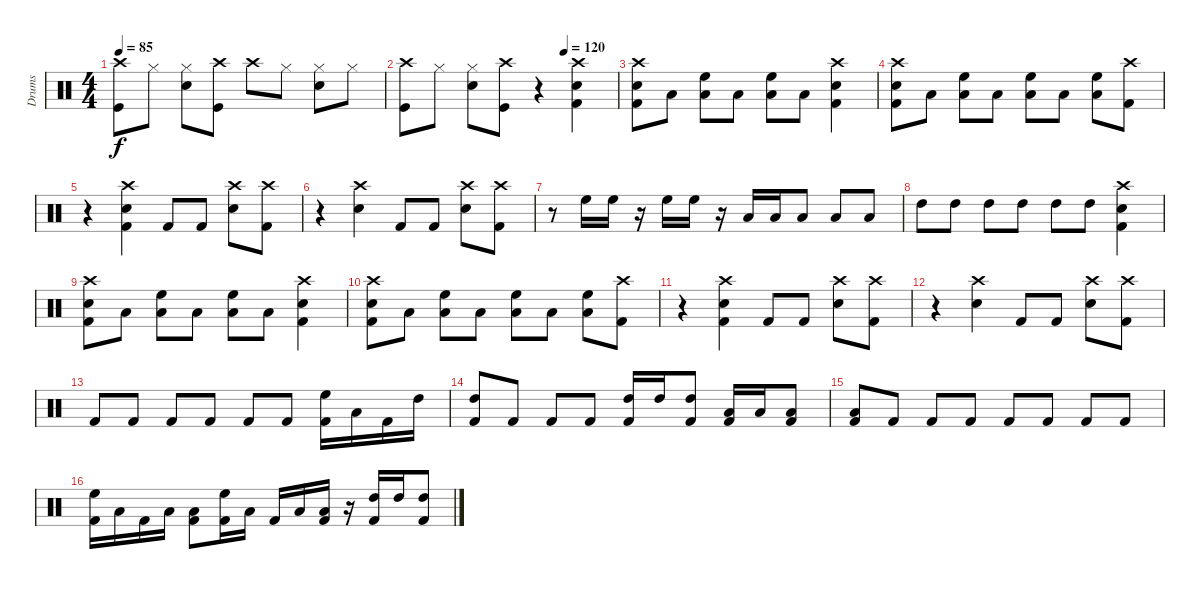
\track ("Drums" "Drums") {instrument percussion}
\staff {score}
\articulation defaults
\ts (4 4)
\tempo 85
\clef neutral
\ks c
("Crash high (hit)" "Kick (hit)").8{dy f} "Hi-Hat (closed)".8 ("Hi-Hat (closed)" "Snare (hit) 2").8 ("Crash high (hit)" "Kick (hit)").8 "Crash high (hit)".8 "Hi-Hat (closed)".8 ("Hi-Hat (closed)" "Snare (hit) 2").8 "Hi-Hat (closed)".8 |
\tempo (120 0.75)
("Crash high (hit)" "Kick (hit)").8 "Hi-Hat (closed)".8 ("Hi-Hat (closed)" "Snare (hit) 2").8 ("Crash high (hit)" "Kick (hit)").8 r.4 ("Crash high (hit)" "Snare (hit) 2" "Kick (hit) 2").4 |
("Crash high (hit)" "Snare (hit) 2" "Kick (hit) 2").8 "Low Tom (hit)".8 ("High Floor Tom (hit)" "Low Tom (hit)").8 "Low Tom (hit)".8 ("High Floor Tom (hit)" "Low Tom (hit)").8 "Low Tom (hit)".8 ("Crash high (hit)" "Snare (hit) 2" "Kick (hit) 2").4 |
("Crash high (hit)" "Snare (hit) 2" "Kick (hit) 2").8 "Low Tom (hit)".8 ("High Floor Tom (hit)" "Low Tom (hit)").8 "Low Tom (hit)".8 ("High Floor Tom (hit)" "Low Tom (hit)").8 "Low Tom (hit)".8 ("High Floor Tom (hit)" "Low Tom (hit)").8 ("Crash high (hit)" "Kick (hit) 2").8 |
r.4 ("Crash high (hit)" "Snare (hit) 2" "Kick (hit) 2").4 "Kick (hit) 2".8 "Kick (hit) 2".8 ("Crash high (hit)" "Snare (hit) 2").8 ("Crash high (hit)" "Kick (hit) 2").8 |
r.4 ("Crash high (hit)" "Snare (hit) 2").4 "Kick (hit) 2".8 "Kick (hit) 2".8 ("Crash high (hit)" "Snare (hit) 2").8 ("Crash high (hit)" "Kick (hit) 2").8 |
r.8 "High Floor Tom (hit)".16 "High Floor Tom (hit)".16 r.16 "High Floor Tom (hit)".16 "High Floor Tom (hit)".16 r.16 "Low Tom (hit)".16 "Low Tom (hit)".16 "Low Tom (hit)".8 "Low Tom (hit)".8 "Low Tom (hit)".8 |
"High Tom (hit)".8 "High Tom (hit)".8 "High Tom (hit)".8 "High Tom (hit)".8 "High Tom (hit)".8 "High Tom (hit)".8 ("Crash high (hit)" "Snare (hit) 2" "Kick (hit) 2").4 |
("Crash high (hit)" "Snare (hit) 2" "Kick (hit) 2").8 "Low Tom (hit)".8 ("High Floor Tom (hit)" "Low Tom (hit)").8 "Low Tom (hit)".8 ("High Floor Tom (hit)" "Low Tom (hit)").8 "Low Tom (hit)".8 ("Crash high (hit)" "Snare (hit) 2" "Kick (hit) 2").4 |
("Crash high (hit)" "Snare (hit) 2" "Kick (hit) 2").8 "Low Tom (hit)".8 ("High Floor Tom (hit)" "Low Tom (hit)").8 "Low Tom (hit)".8 ("High Floor Tom (hit)" "Low Tom (hit)").8 "Low Tom (hit)".8 ("High Floor Tom (hit)" "Low Tom (hit)").8 ("Crash high (hit)" "Kick (hit) 2").8 |
r.4 ("Crash high (hit)" "Snare (hit) 2" "Kick (hit) 2").4 "Kick (hit) 2".8 "Kick (hit) 2".8 ("Crash high (hit)" "Snare (hit) 2").8 ("Crash high (hit)" "Kick (hit) 2").8 |
r.4 ("Crash high (hit)" "Snare (hit) 2").4 "Kick (hit) 2".8 "Kick (hit) 2".8 ("Crash high (hit)" "Snare (hit) 2").8 ("Crash high (hit)" "Kick (hit) 2").8 |
"Kick (hit) 2".8 "Kick (hit) 2".8 "Kick (hit) 2".8 "Kick (hit) 2".8 "Kick (hit) 2".8 "Kick (hit) 2".8 ("High Floor Tom (hit)" "Kick (hit) 2").16 "Low Tom (hit)".16 "Kick (hit) 2".16 "High Tom (hit)".16 |
("High Tom (hit)" "Kick (hit) 2").8 "Kick (hit) 2".8 "Kick (hit) 2".8 "Kick (hit) 2".8 ("High Tom (hit)" "Kick (hit) 2").16 "High Tom (hit)".16 ("High Tom (hit)" "Kick (hit) 2").8 ("Low Tom (hit)" "Kick (hit) 2").16 "Low Tom (hit)".16 ("Low Tom (hit)" "Kick (hit) 2").8 |
("Low Tom (hit)" "Kick (hit) 2").8 "Kick (hit) 2".8 "Kick (hit) 2".8 "Kick (hit) 2".8 "Kick (hit) 2".8 "Kick (hit) 2".8 "Kick (hit) 2".8 "Kick (hit) 2".8 |
("High Floor Tom (hit)" "Kick (hit) 2").16 "Low Tom (hit)".16 "Kick (hit) 2".16 "Low Tom (hit)".16 ("Low Tom (hit)" "Kick (hit) 2").8 ("High Floor Tom (hit)" "Kick (hit) 2").16 "Low Tom (hit)".16 "Kick (hit) 2".16 "Low Tom (hit)".16 ("Low Tom (hit)" "Kick (hit) 2").16 r.16 ("High Tom (hit)" "Kick (hit) 2").16 "High Tom (hit)".16 ("High Tom (hit)" "Kick (hit) 2").8
